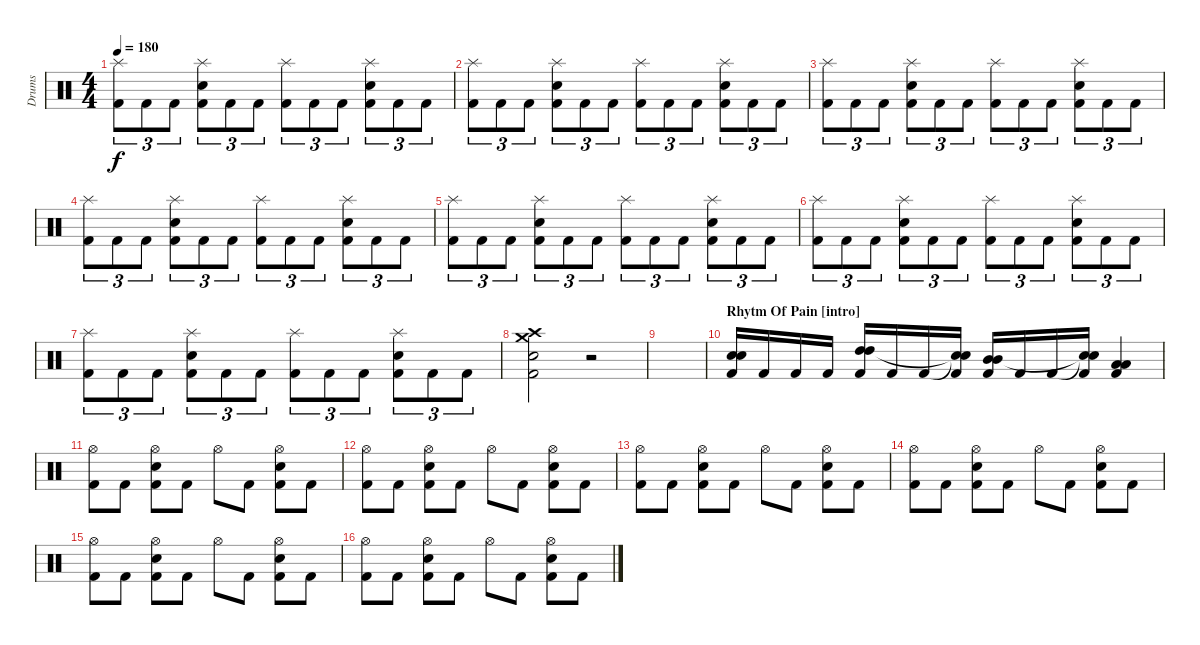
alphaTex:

\track ("Drums" "Drums") {instrument percussion}
\staff {score}
\articulation defaults
\ts (4 4)
\tempo 180
\clef neutral
\ks c
("Splash (hit)" "Kick (hit) 2").8{tu (3 2) dy f} "Kick (hit) 2".8{tu (3 2)} "Kick (hit) 2".8{tu (3 2)} ("Splash (hit)" "Electric Snare (hit)" "Kick (hit) 2").8{tu (3 2)} "Kick (hit) 2".8{tu (3 2)} "Kick (hit) 2".8{tu (3 2)} ("Splash (hit)" "Kick (hit) 2").8{tu (3 2)} "Kick (hit) 2".8{tu (3 2)} "Kick (hit) 2".8{tu (3 2)} ("Splash (hit)" "Electric Snare (hit)" "Kick (hit) 2").8{tu (3 2)} "Kick (hit) 2".8{tu (3 2)} "Kick (hit) 2".8{tu (3 2)} |
("Splash (hit)" "Kick (hit) 2").8{tu (3 2)} "Kick (hit) 2".8{tu (3 2)} "Kick (hit) 2".8{tu (3 2)} ("Splash (hit)" "Electric Snare (hit)" "Kick (hit) 2").8{tu (3 2)} "Kick (hit) 2".8{tu (3 2)} "Kick (hit) 2".8{tu (3 2)} ("Splash (hit)" "Kick (hit) 2").8{tu (3 2)} "Kick (hit) 2".8{tu (3 2)} "Kick (hit) 2".8{tu (3 2)} ("Splash (hit)" "Electric Snare (hit)" "Kick (hit) 2").8{tu (3 2)} "Kick (hit) 2".8{tu (3 2)} "Kick (hit) 2".8{tu (3 2)} |
("Splash (hit)" "Kick (hit) 2").8{tu (3 2)} "Kick (hit) 2".8{tu (3 2)} "Kick (hit) 2".8{tu (3 2)} ("Splash (hit)" "Electric Snare (hit)" "Kick (hit) 2").8{tu (3 2)} "Kick (hit) 2".8{tu (3 2)} "Kick (hit) 2".8{tu (3 2)} ("Splash (hit)" "Kick (hit) 2").8{tu (3 2)} "Kick (hit) 2".8{tu (3 2)} "Kick (hit) 2".8{tu (3 2)} ("Splash (hit)" "Electric Snare (hit)" "Kick (hit) 2").8{tu (3 2)} "Kick (hit) 2".8{tu (3 2)} "Kick (hit) 2".8{tu (3 2)} |
("Splash (hit)" "Kick (hit) 2").8{tu (3 2)} "Kick (hit) 2".8{tu (3 2)} "Kick (hit) 2".8{tu (3 2)} ("Splash (hit)" "Electric Snare (hit)" "Kick (hit) 2").8{tu (3 2)} "Kick (hit) 2".8{tu (3 2)} "Kick (hit) 2".8{tu (3 2)} ("Splash (hit)" "Kick (hit) 2").8{tu (3 2)} "Kick (hit) 2".8{tu (3 2)} "Kick (hit) 2".8{tu (3 2)} ("Splash (hit)" "Electric Snare (hit)" "Kick (hit) 2").8{tu (3 2)} "Kick (hit) 2".8{tu (3 2)} "Kick (hit) 2".8{tu (3 2)} |
("Splash (hit)" "Kick (hit) 2").8{tu (3 2)} "Kick (hit) 2".8{tu (3 2)} "Kick (hit) 2".8{tu (3 2)} ("Splash (hit)" "Electric Snare (hit)" "Kick (hit) 2").8{tu (3 2)} "Kick (hit) 2".8{tu (3 2)} "Kick (hit) 2".8{tu (3 2)} ("Splash (hit)" "Kick (hit) 2").8{tu (3 2)} "Kick (hit) 2".8{tu (3 2)} "Kick (hit) 2".8{tu (3 2)} ("Splash (hit)" "Electric Snare (hit)" "Kick (hit) 2").8{tu (3 2)} "Kick (hit) 2".8{tu (3 2)} "Kick (hit) 2".8{tu (3 2)} |
("Splash (hit)" "Kick (hit) 2").8{tu (3 2)} "Kick (hit) 2".8{tu (3 2)} "Kick (hit) 2".8{tu (3 2)} ("Splash (hit)" "Electric Snare (hit)" "Kick (hit) 2").8{tu (3 2)} "Kick (hit) 2".8{tu (3 2)} "Kick (hit) 2".8{tu (3 2)} ("Splash (hit)" "Kick (hit) 2").8{tu (3 2)} "Kick (hit) 2".8{tu (3 2)} "Kick (hit) 2".8{tu (3 2)} ("Splash (hit)" "Electric Snare (hit)" "Kick (hit) 2").8{tu (3 2)} "Kick (hit) 2".8{tu (3 2)} "Kick (hit) 2".8{tu (3 2)} |
("Splash (hit)" "Kick (hit) 2").8{tu (3 2)} "Kick (hit) 2".8{tu (3 2)} "Kick (hit) 2".8{tu (3 2)} ("Splash (hit)" "Electric Snare (hit)" "Kick (hit) 2").8{tu (3 2)} "Kick (hit) 2".8{tu (3 2)} "Kick (hit) 2".8{tu (3 2)} ("Splash (hit)" "Kick (hit) 2").8{tu (3 2)} "Kick (hit) 2".8{tu (3 2)} "Kick (hit) 2".8{tu (3 2)} ("Splash (hit)" "Electric Snare (hit)" "Kick (hit) 2").8{tu (3 2)} "Kick (hit) 2".8{tu (3 2)} "Kick (hit) 2".8{tu (3 2)} |
("Crash high (hit)" "Electric Snare (hit)" "Crash medium (hit)" "Kick (hit) 2").2 r.2 |
|
\section ("" "Rhytm Of Pain [intro]")
("Electric Snare (hit)" "Electric Snare (hit)" "Kick (hit) 2").16 "Kick (hit) 2".16 "Kick (hit) 2".16 "Kick (hit) 2".16 ("High Tom (hit)" "High Tom (hit)" "Kick (hit) 2").16 "Kick (hit) 2".16 "Kick (hit) 2".16 ("Snare (hit)"{t} "Snare (hit)"{t} "Kick (hit) 2").16 ("Mid Tom (hit)" "Mid Tom (hit)" "Kick (hit) 2").16 "Kick (hit) 2".16 "Kick (hit) 2".16 ("Snare (hit)"{t} "Snare (hit)"{t} "Kick (hit) 2").16 ("Low Tom (hit)" "Low Tom (hit)" "Kick (hit) 2").4 |
("Hi-Hat (open)" "Kick (hit) 2").8 "Kick (hit) 2".8 ("Electric Snare (hit)" "Hi-Hat (open)" "Kick (hit) 2").8 "Kick (hit) 2".8 "Hi-Hat (open)".8 "Kick (hit) 2".8 ("Electric Snare (hit)" "Hi-Hat (open)" "Kick (hit) 2").8 "Kick (hit) 2".8 |
("Hi-Hat (open)" "Kick (hit) 2").8 "Kick (hit) 2".8 ("Electric Snare (hit)" "Hi-Hat (open)" "Kick (hit) 2").8 "Kick (hit) 2".8 "Hi-Hat (open)".8 "Kick (hit) 2".8 ("Electric Snare (hit)" "Hi-Hat (open)" "Kick (hit) 2").8 "Kick (hit) 2".8 |
("Hi-Hat (open)" "Kick (hit) 2").8 "Kick (hit) 2".8 ("Electric Snare (hit)" "Hi-Hat (open)" "Kick (hit) 2").8 "Kick (hit) 2".8 "Hi-Hat (open)".8 "Kick (hit) 2".8 ("Electric Snare (hit)" "Hi-Hat (open)" "Kick (hit) 2").8 "Kick (hit) 2".8 |
("Hi-Hat (open)" "Kick (hit) 2").8 "Kick (hit) 2".8 ("Electric Snare (hit)" "Hi-Hat (open)" "Kick (hit) 2").8 "Kick (hit) 2".8 "Hi-Hat (open)".8 "Kick (hit) 2".8 ("Electric Snare (hit)" "Hi-Hat (open)" "Kick (hit) 2").8 "Kick (hit) 2".8 |
("Hi-Hat (open)" "Kick (hit) 2").8 "Kick (hit) 2".8 ("Electric Snare (hit)" "Hi-Hat (open)" "Kick (hit) 2").8 "Kick (hit) 2".8 "Hi-Hat (open)".8 "Kick (hit) 2".8 ("Electric Snare (hit)" "Hi-Hat (open)" "Kick (hit) 2").8 "Kick (hit) 2".8 |
("Hi-Hat (open)" "Kick (hit) 2").8 "Kick (hit) 2".8 ("Electric Snare (hit)" "Hi-Hat (open)" "Kick (hit) 2").8 "Kick (hit) 2".8 "Hi-Hat (open)".8 "Kick (hit) 2".8 ("Electric Snare (hit)" "Hi-Hat (open)" "Kick (hit) 2").8 "Kick (hit) 2".8
